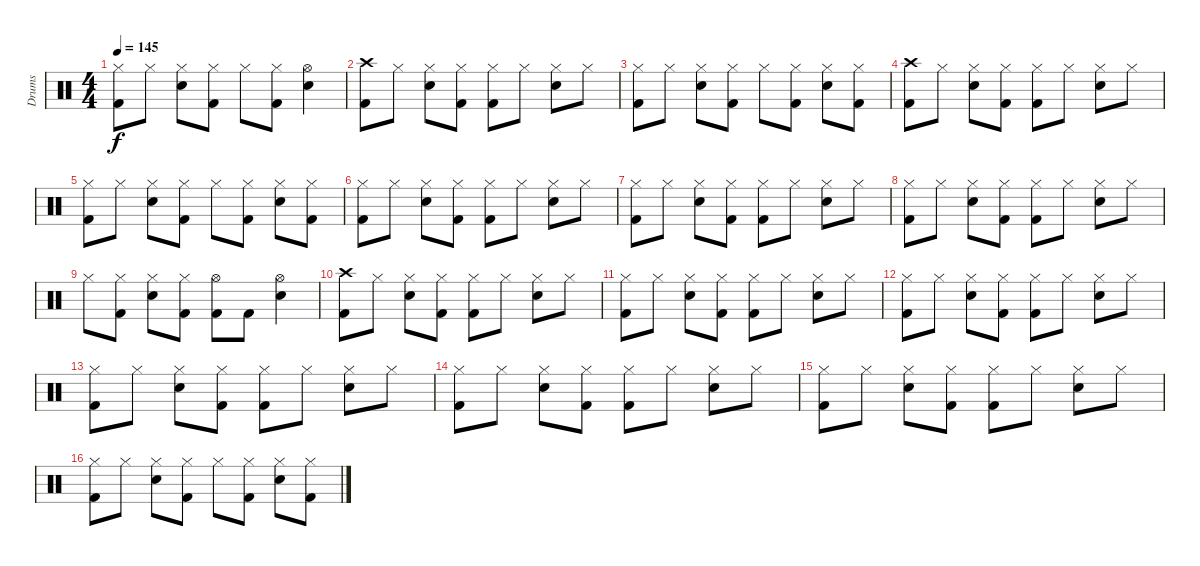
\track ("Drums" "Drums") {instrument percussion}
\staff {score}
\articulation defaults
\ts (4 4)
\tempo 145
\clef neutral
\ks c
("Hi-Hat (closed)" "Kick (hit) 2").8{dy f} "Hi-Hat (closed)".8 ("Hi-Hat (closed)" "Electric Snare (hit)").8 ("Hi-Hat (closed)" "Kick (hit) 2").8 "Hi-Hat (closed)".8 ("Hi-Hat (closed)" "Kick (hit) 2").8 ("Hi-Hat (open)" "Electric Snare (hit)").4 |
("Crash high (hit)" "Kick (hit) 2").8 "Hi-Hat (closed)".8 ("Hi-Hat (closed)" "Electric Snare (hit)").8 ("Hi-Hat (closed)" "Kick (hit) 2").8 ("Hi-Hat (closed)" "Kick (hit) 2").8 "Hi-Hat (closed)".8 ("Hi-Hat (closed)" "Electric Snare (hit)").8 "Hi-Hat (closed)".8 |
("Hi-Hat (closed)" "Kick (hit) 2").8 "Hi-Hat (closed)".8 ("Hi-Hat (closed)" "Electric Snare (hit)").8 ("Hi-Hat (closed)" "Kick (hit) 2").8 "Hi-Hat (closed)".8 ("Hi-Hat (closed)" "Kick (hit) 2").8 ("Hi-Hat (closed)" "Electric Snare (hit)").8 ("Hi-Hat (closed)" "Kick (hit) 2").8 |
("Crash high (hit)" "Kick (hit) 2").8 "Hi-Hat (closed)".8 ("Hi-Hat (closed)" "Electric Snare (hit)").8 ("Hi-Hat (closed)" "Kick (hit) 2").8 ("Hi-Hat (closed)" "Kick (hit) 2").8 "Hi-Hat (closed)".8 ("Hi-Hat (closed)" "Electric Snare (hit)").8 "Hi-Hat (closed)".8 |
("Hi-Hat (closed)" "Kick (hit) 2").8 "Hi-Hat (closed)".8 ("Hi-Hat (closed)" "Electric Snare (hit)").8 ("Hi-Hat (closed)" "Kick (hit) 2").8 "Hi-Hat (closed)".8 ("Hi-Hat (closed)" "Kick (hit) 2").8 ("Hi-Hat (closed)" "Electric Snare (hit)").8 ("Hi-Hat (closed)" "Kick (hit) 2").8 |
("Hi-Hat (closed)" "Kick (hit) 2").8 "Hi-Hat (closed)".8 ("Hi-Hat (closed)" "Electric Snare (hit)").8 ("Hi-Hat (closed)" "Kick (hit) 2").8 ("Hi-Hat (closed)" "Kick (hit) 2").8 "Hi-Hat (closed)".8 ("Hi-Hat (closed)" "Electric Snare (hit)").8 "Hi-Hat (closed)".8 |
("Hi-Hat (closed)" "Kick (hit) 2").8 "Hi-Hat (closed)".8 ("Hi-Hat (closed)" "Electric Snare (hit)").8 ("Hi-Hat (closed)" "Kick (hit) 2").8 ("Hi-Hat (closed)" "Kick (hit) 2").8 "Hi-Hat (closed)".8 ("Hi-Hat (closed)" "Electric Snare (hit)").8 "Hi-Hat (closed)".8 |
("Hi-Hat (closed)" "Kick (hit) 2").8 "Hi-Hat (closed)".8 ("Hi-Hat (closed)" "Electric Snare (hit)").8 ("Hi-Hat (closed)" "Kick (hit) 2").8 ("Hi-Hat (closed)" "Kick (hit) 2").8 "Hi-Hat (closed)".8 ("Hi-Hat (closed)" "Electric Snare (hit)").8 "Hi-Hat (closed)".8 |
"Hi-Hat (closed)".8 ("Hi-Hat (closed)" "Kick (hit) 2").8 ("Hi-Hat (closed)" "Electric Snare (hit)").8 ("Hi-Hat (closed)" "Kick (hit) 2").8 ("Hi-Hat (open)" "Kick (hit) 2").8 "Kick (hit) 2".8 ("Hi-Hat (open)" "Electric Snare (hit)").4 |
("Crash high (hit)" "Kick (hit) 2").8 "Hi-Hat (closed)".8 ("Hi-Hat (closed)" "Electric Snare (hit)").8 ("Hi-Hat (closed)" "Kick (hit) 2").8 ("Hi-Hat (closed)" "Kick (hit) 2").8 "Hi-Hat (closed)".8 ("Hi-Hat (closed)" "Electric Snare (hit)").8 "Hi-Hat (closed)".8 |
("Hi-Hat (closed)" "Kick (hit) 2").8 "Hi-Hat (closed)".8 ("Hi-Hat (closed)" "Electric Snare (hit)").8 ("Hi-Hat (closed)" "Kick (hit) 2").8 ("Hi-Hat (closed)" "Kick (hit) 2").8 "Hi-Hat (closed)".8 ("Hi-Hat (closed)" "Electric Snare (hit)").8 "Hi-Hat (closed)".8 |
("Hi-Hat (closed)" "Kick (hit) 2").8 "Hi-Hat (closed)".8 ("Hi-Hat (closed)" "Electric Snare (hit)").8 ("Hi-Hat (closed)" "Kick (hit) 2").8 ("Hi-Hat (closed)" "Kick (hit) 2").8 "Hi-Hat (closed)".8 ("Hi-Hat (closed)" "Electric Snare (hit)").8 "Hi-Hat (closed)".8 |
("Hi-Hat (closed)" "Kick (hit) 2").8 "Hi-Hat (closed)".8 ("Hi-Hat (closed)" "Electric Snare (hit)").8 ("Hi-Hat (closed)" "Kick (hit) 2").8 ("Hi-Hat (closed)" "Kick (hit) 2").8 "Hi-Hat (closed)".8 ("Hi-Hat (closed)" "Electric Snare (hit)").8 "Hi-Hat (closed)".8 |
("Hi-Hat (closed)" "Kick (hit) 2").8 "Hi-Hat (closed)".8 ("Hi-Hat (closed)" "Electric Snare (hit)").8 ("Hi-Hat (closed)" "Kick (hit) 2").8 ("Hi-Hat (closed)" "Kick (hit) 2").8 "Hi-Hat (closed)".8 ("Hi-Hat (closed)" "Electric Snare (hit)").8 "Hi-Hat (closed)".8 |
("Hi-Hat (closed)" "Kick (hit) 2").8 "Hi-Hat (closed)".8 ("Hi-Hat (closed)" "Electric Snare (hit)").8 ("Hi-Hat (closed)" "Kick (hit) 2").8 ("Hi-Hat (closed)" "Kick (hit) 2").8 "Hi-Hat (closed)".8 ("Hi-Hat (closed)" "Electric Snare (hit)").8 "Hi-Hat (closed)".8 |
("Hi-Hat (closed)" "Kick (hit) 2").8 "Hi-Hat (closed)".8 ("Hi-Hat (closed)" "Electric Snare (hit)").8 ("Hi-Hat (closed)" "Kick (hit) 2").8 "Hi-Hat (closed)".8 ("Hi-Hat (closed)" "Kick (hit) 2").8 ("Hi-Hat (closed)" "Electric Snare (hit)").8 ("Hi-Hat (closed)" "Kick (hit) 2").8
